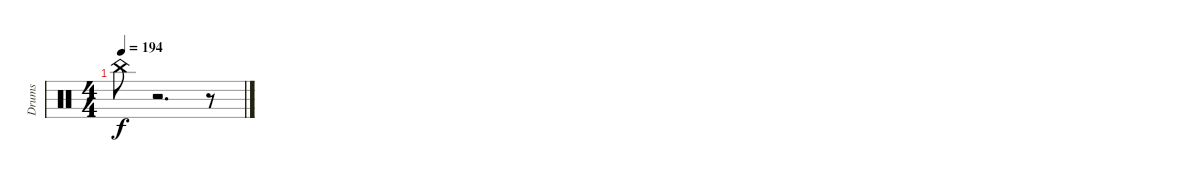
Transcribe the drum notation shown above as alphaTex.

\track ("Drums" "Drums") {instrument percussion}
\staff {score}
\articulation defaults
\ts (4 4)
\tempo 194
\clef neutral
\ks aminor "China (hit)".8{dy f}
r.2{d} r.8
